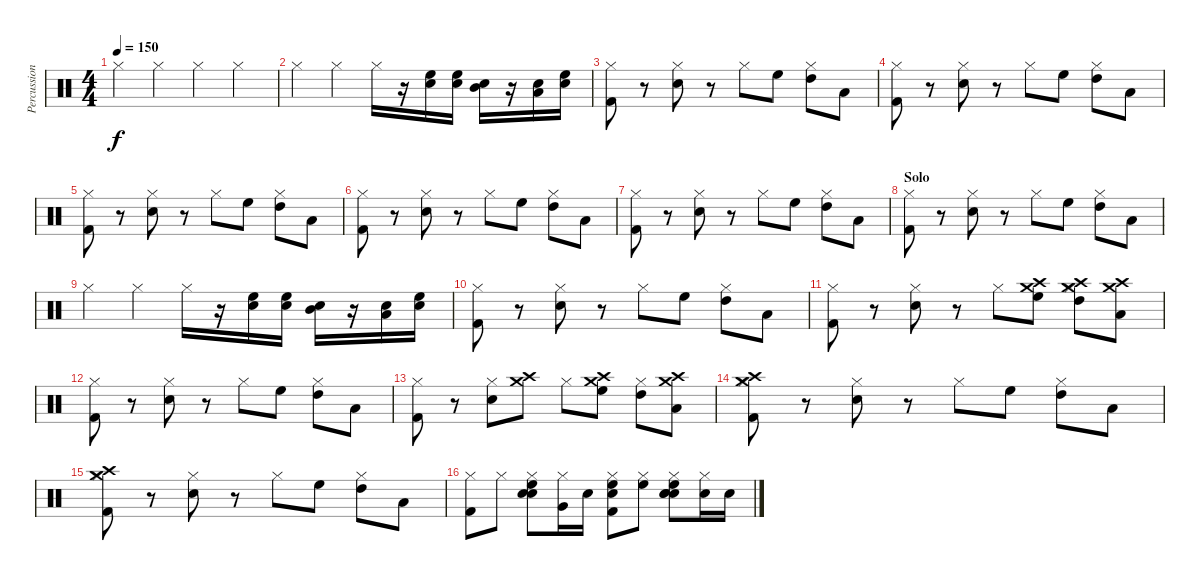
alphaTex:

\track ("Percussion" "Percussion") {instrument percussion}
\staff {score}
\articulation defaults
\ts (4 4)
\tempo 150
\clef neutral
\ks c "Hi-Hat (closed)".4{dy f} "Hi-Hat (closed)".4 "Hi-Hat (closed)".4 "Hi-Hat (closed)".4
|
"Hi-Hat (closed)".4 "Hi-Hat (closed)".4 "Hi-Hat (closed)".16 r.16 ("High Floor Tom (hit)" "Snare (hit) 2").16 ("High Floor Tom (hit)" "Snare (hit) 2").16 ("Mid Tom (hit)" "Snare (hit) 2").16 r.16 ("Low Tom (hit)" "Snare (hit) 2").16 ("High Floor Tom (hit)" "Snare (hit) 2").16 |
("Hi-Hat (closed)" "Kick (hit) 2").8 r.8 ("Hi-Hat (closed)" "Snare (hit) 2").8 r.8 "Hi-Hat (closed)".8 "High Floor Tom (hit)".8 ("Hi-Hat (closed)" "High Tom (hit)").8 "Low Tom (hit)".8 |
("Hi-Hat (closed)" "Kick (hit) 2").8 r.8 ("Hi-Hat (closed)" "Snare (hit) 2").8 r.8 "Hi-Hat (closed)".8 "High Floor Tom (hit)".8 ("Hi-Hat (closed)" "High Tom (hit)").8 "Low Tom (hit)".8 |
("Hi-Hat (closed)" "Kick (hit) 2").8 r.8 ("Hi-Hat (closed)" "Snare (hit) 2").8 r.8 "Hi-Hat (closed)".8 "High Floor Tom (hit)".8 ("Hi-Hat (closed)" "High Tom (hit)").8 "Low Tom (hit)".8 |
("Hi-Hat (closed)" "Kick (hit) 2").8 r.8 ("Hi-Hat (closed)" "Snare (hit) 2").8 r.8 "Hi-Hat (closed)".8 "High Floor Tom (hit)".8 ("Hi-Hat (closed)" "High Tom (hit)").8 "Low Tom (hit)".8 |
("Hi-Hat (closed)" "Kick (hit) 2").8 r.8 ("Hi-Hat (closed)" "Snare (hit) 2").8 r.8 "Hi-Hat (closed)".8 "High Floor Tom (hit)".8 ("Hi-Hat (closed)" "High Tom (hit)").8 "Low Tom (hit)".8 |
\section ("" "Solo")
("Hi-Hat (closed)" "Kick (hit) 2").8 r.8 ("Hi-Hat (closed)" "Snare (hit) 2").8 r.8 "Hi-Hat (closed)".8 "High Floor Tom (hit)".8 ("Hi-Hat (closed)" "High Tom (hit)").8 "Low Tom (hit)".8 |
"Hi-Hat (closed)".4 "Hi-Hat (closed)".4 "Hi-Hat (closed)".16 r.16 ("High Floor Tom (hit)" "Snare (hit) 2").16 ("High Floor Tom (hit)" "Snare (hit) 2").16 ("Mid Tom (hit)" "Snare (hit) 2").16 r.16 ("Low Tom (hit)" "Snare (hit) 2").16 ("High Floor Tom (hit)" "Snare (hit) 2").16 |
("Hi-Hat (closed)" "Kick (hit) 2").8 r.8 ("Hi-Hat (closed)" "Snare (hit) 2").8 r.8 "Hi-Hat (closed)".8 "High Floor Tom (hit)".8 ("Hi-Hat (closed)" "High Tom (hit)").8 "Low Tom (hit)".8 |
("Hi-Hat (closed)" "Kick (hit) 2").8 r.8 ("Hi-Hat (closed)" "Snare (hit) 2").8 r.8 "Hi-Hat (closed)".8 ("High Floor Tom (hit)" "Crash medium (hit)" "Crash high (hit)").8 ("Hi-Hat (closed)" "High Tom (hit)" "Crash medium (hit)" "Crash high (hit)").8 ("Low Tom (hit)" "Crash medium (hit)" "Crash high (hit)").8 |
("Hi-Hat (closed)" "Kick (hit) 2").8 r.8 ("Hi-Hat (closed)" "Snare (hit) 2").8 r.8 "Hi-Hat (closed)".8 "High Floor Tom (hit)".8 ("Hi-Hat (closed)" "High Tom (hit)").8 "Low Tom (hit)".8 |
("Hi-Hat (closed)" "Kick (hit) 2").8 r.8 ("Hi-Hat (closed)" "Snare (hit) 2").8 ("Crash medium (hit)" "Crash high (hit)").8 "Hi-Hat (closed)".8 ("High Floor Tom (hit)" "Crash medium (hit)" "Crash high (hit)").8 ("Hi-Hat (closed)" "High Tom (hit)").8 ("Low Tom (hit)" "Crash medium (hit)" "Crash high (hit)").8 |
("Hi-Hat (closed)" "Kick (hit) 2" "Crash medium (hit)" "Crash high (hit)").8 r.8 ("Hi-Hat (closed)" "Snare (hit) 2").8 r.8 "Hi-Hat (closed)".8 "High Floor Tom (hit)".8 ("Hi-Hat (closed)" "High Tom (hit)").8 "Low Tom (hit)".8 |
("Hi-Hat (closed)" "Kick (hit) 2" "Crash high (hit)" "Crash medium (hit)").8 r.8 ("Hi-Hat (closed)" "Snare (hit) 2").8 r.8 "Hi-Hat (closed)".8 "High Floor Tom (hit)".8 ("Hi-Hat (closed)" "High Tom (hit)").8 "Low Tom (hit)".8 |
("Hi-Hat (closed)" "Kick (hit) 2").8 "Hi-Hat (closed)".8 ("Hi-Hat (closed)" "Snare (hit) 2" "Electric Snare (hit)" "High Floor Tom (hit)").8 ("Hi-Hat (closed)" "Very Low Tom (hit)").16 "Snare (hit) 2".16 ("Hi-Hat (closed)" "Kick (hit) 2" "Snare (hit) 2" "High Floor Tom (hit)").8 ("Hi-Hat (closed)" "High Floor Tom (hit)").8 ("Hi-Hat (closed)" "Snare (hit) 2" "Electric Snare (hit)" "Snare (hit) 2" "High Floor Tom (hit)").8 ("Hi-Hat (closed)" "Snare (hit) 2").16 "Snare (hit) 2".16
